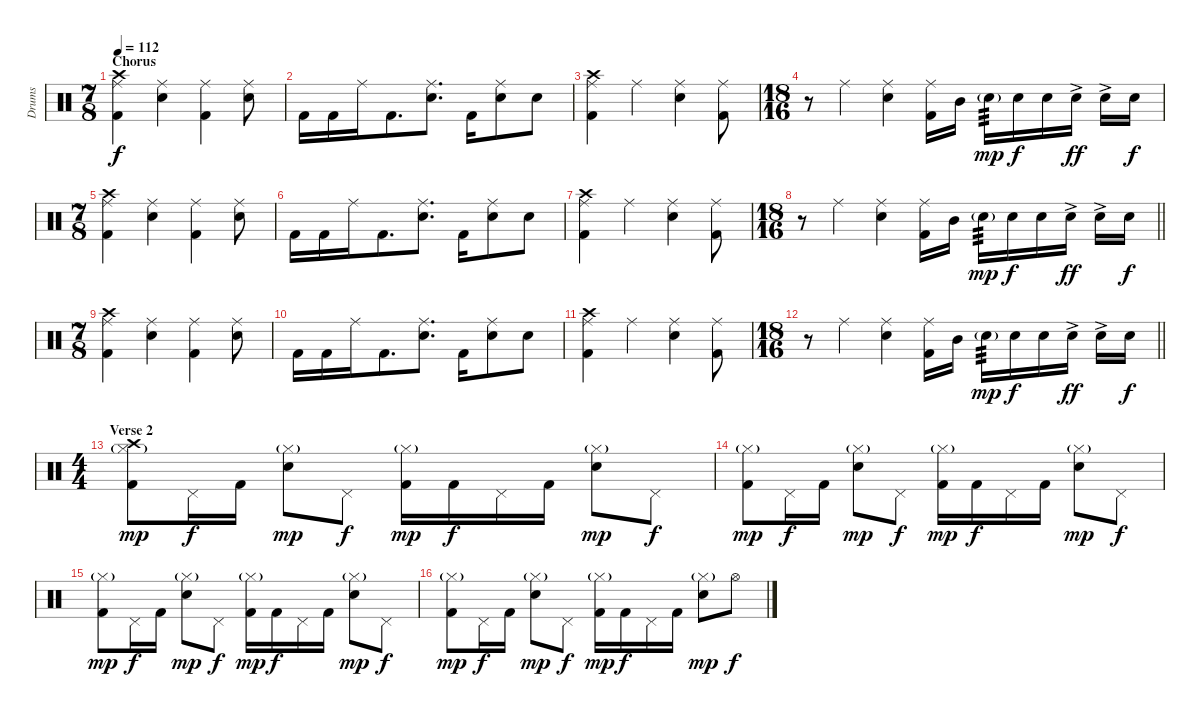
\track ("Drums" "Drums") {instrument percussion}
\staff {score}
\articulation defaults
\ts (7 8)
\section ("" "Chorus")
\tempo 112
\clef neutral
\ks c
("Ride (middle)" "Crash high (hit)" "Kick (hit) 2").4{dy f volume 10} ("Ride (middle)" "Electric Snare (hit)").4 ("Ride (middle)" "Kick (hit) 2").4 ("Ride (middle)" "Electric Snare (hit)").8 |
"Kick (hit) 2".16 "Kick (hit) 2".16 "Ride (middle)".16 "Kick (hit) 2".8{d} ("Ride (middle)" "Electric Snare (hit)").8{d} "Kick (hit) 2".16 ("Ride (middle)" "Electric Snare (hit)").8 "Electric Snare (hit)".8 |
("Ride (middle)" "Crash high (hit)" "Kick (hit) 2").4 "Ride (middle)".4 ("Ride (middle)" "Electric Snare (hit)").4 ("Ride (middle)" "Kick (hit) 2").8 |
\ts (18 16)
r.8 "Ride (middle)".4 ("Ride (middle)" "Electric Snare (hit)").4 ("Ride (middle)" "Kick (hit) 2").16 "Mid Tom (hit)".16 "Electric Snare (hit)"{g}.16{tp 3 dy mp} "Electric Snare (hit)".16{dy f} "Electric Snare (hit)".16 "Electric Snare (hit)"{ac}.16{dy ff} "Electric Snare (hit)"{ac}.16 "Electric Snare (hit)".16{dy f} |
\ts (7 8)
("Ride (middle)" "Crash high (hit)" "Kick (hit) 2").4 ("Ride (middle)" "Electric Snare (hit)").4 ("Ride (middle)" "Kick (hit) 2").4 ("Ride (middle)" "Electric Snare (hit)").8 |
"Kick (hit) 2".16 "Kick (hit) 2".16 "Ride (middle)".16 "Kick (hit) 2".8{d} ("Ride (middle)" "Electric Snare (hit)").8{d} "Kick (hit) 2".16 ("Ride (middle)" "Electric Snare (hit)").8 "Electric Snare (hit)".8 |
("Ride (middle)" "Crash high (hit)" "Kick (hit) 2").4 "Ride (middle)".4 ("Ride (middle)" "Electric Snare (hit)").4 ("Ride (middle)" "Kick (hit) 2").8 |
\ts (18 16)
\barLineRight lightlight
r.8 "Ride (middle)".4 ("Ride (middle)" "Electric Snare (hit)").4 ("Ride (middle)" "Kick (hit) 2").16 "Mid Tom (hit)".16 "Electric Snare (hit)"{g}.16{tp 3 dy mp} "Electric Snare (hit)".16{dy f} "Electric Snare (hit)".16 "Electric Snare (hit)"{ac}.16{dy ff} "Electric Snare (hit)"{ac}.16 "Electric Snare (hit)".16{dy f} |
\ts (7 8)
("Ride (middle)" "Crash high (hit)" "Kick (hit) 2").4 ("Ride (middle)" "Electric Snare (hit)").4 ("Ride (middle)" "Kick (hit) 2").4 ("Ride (middle)" "Electric Snare (hit)").8 |
"Kick (hit) 2".16 "Kick (hit) 2".16 "Ride (middle)".16 "Kick (hit) 2".8{d} ("Ride (middle)" "Electric Snare (hit)").8{d} "Kick (hit) 2".16 ("Ride (middle)" "Electric Snare (hit)").8 "Electric Snare (hit)".8 |
("Ride (middle)" "Crash high (hit)" "Kick (hit) 2").4 "Ride (middle)".4 ("Ride (middle)" "Electric Snare (hit)").4 ("Ride (middle)" "Kick (hit) 2").8 |
\ts (18 16)
\barLineRight lightlight
r.8 "Ride (middle)".4 ("Ride (middle)" "Electric Snare (hit)").4 ("Ride (middle)" "Kick (hit) 2").16 "Mid Tom (hit)".16 "Electric Snare (hit)"{g}.16{tp 3 dy mp} "Electric Snare (hit)".16{dy f} "Electric Snare (hit)".16 "Electric Snare (hit)"{ac}.16{dy ff} "Electric Snare (hit)"{ac}.16 "Electric Snare (hit)".16{dy f} |
\ts (4 4)
\section ("" "Verse 2")
("Hi-Hat (closed)"{g} "Crash high (hit)" "Kick (hit) 2").8{dy mp} "Pedal Hi-Hat (hit)".16{dy f} "Kick (hit) 2".16 ("Hi-Hat (closed)"{g} "Snare (hit) 2").8{dy mp} "Pedal Hi-Hat (hit)".8{dy f} ("Hi-Hat (closed)"{g} "Kick (hit) 2").16{dy mp} "Kick (hit) 2".16{dy f} "Pedal Hi-Hat (hit)".16 "Kick (hit) 2".16 ("Hi-Hat (closed)"{g} "Snare (hit) 2").8{dy mp} "Pedal Hi-Hat (hit)".8{dy f} |
("Hi-Hat (closed)"{g} "Kick (hit) 2").8{dy mp} "Pedal Hi-Hat (hit)".16{dy f} "Kick (hit) 2".16 ("Hi-Hat (closed)"{g} "Snare (hit) 2").8{dy mp} "Pedal Hi-Hat (hit)".8{dy f} ("Hi-Hat (closed)"{g} "Kick (hit) 2").16{dy mp} "Kick (hit) 2".16{dy f} "Pedal Hi-Hat (hit)".16 "Kick (hit) 2".16 ("Hi-Hat (closed)"{g} "Snare (hit) 2").8{dy mp} "Pedal Hi-Hat (hit)".8{dy f} |
("Hi-Hat (closed)"{g} "Kick (hit) 2").8{dy mp} "Pedal Hi-Hat (hit)".16{dy f} "Kick (hit) 2".16 ("Hi-Hat (closed)"{g} "Snare (hit) 2").8{dy mp} "Pedal Hi-Hat (hit)".8{dy f} ("Hi-Hat (closed)"{g} "Kick (hit) 2").16{dy mp} "Kick (hit) 2".16{dy f} "Pedal Hi-Hat (hit)".16 "Kick (hit) 2".16 ("Hi-Hat (closed)"{g} "Snare (hit) 2").8{dy mp} "Pedal Hi-Hat (hit)".8{dy f} |
("Hi-Hat (closed)"{g} "Kick (hit) 2").8{dy mp} "Pedal Hi-Hat (hit)".16{dy f} "Kick (hit) 2".16 ("Hi-Hat (closed)"{g} "Snare (hit) 2").8{dy mp} "Pedal Hi-Hat (hit)".8{dy f} ("Hi-Hat (closed)"{g} "Kick (hit) 2").16{dy mp} "Kick (hit) 2".16{dy f} "Pedal Hi-Hat (hit)".16 "Kick (hit) 2".16 ("Hi-Hat (closed)"{g} "Snare (hit) 2").8{dy mp} "Hi-Hat (open)".8{dy f}
